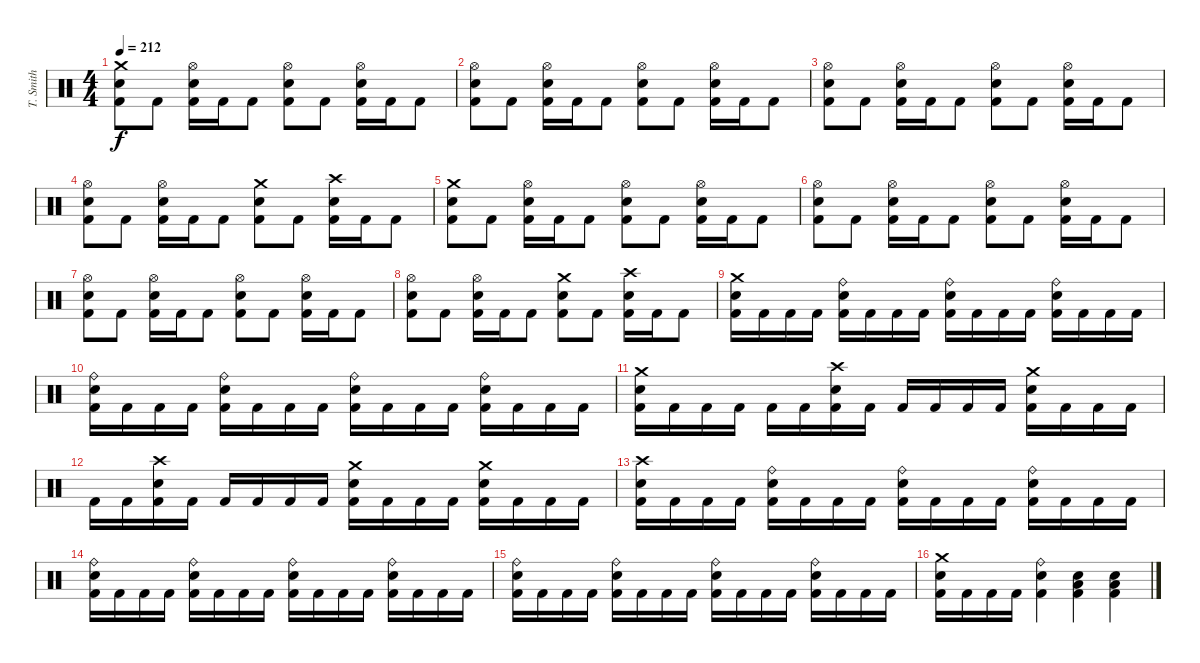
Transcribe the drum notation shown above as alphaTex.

\track ("T. Smith" "T. Smith") {instrument percussion}
\staff {score}
\articulation defaults
\ts (4 4)
\tempo 212
\clef neutral
\ks c
("Crash medium (hit)" "Electric Snare (hit)" "Kick (hit) 2").8{dy f} "Kick (hit) 2".8 ("Hi-Hat (open)" "Electric Snare (hit)" "Kick (hit) 2").16 "Kick (hit) 2".16 "Kick (hit) 2".8 ("Hi-Hat (open)" "Electric Snare (hit)" "Kick (hit) 2").8 "Kick (hit) 2".8 ("Hi-Hat (open)" "Electric Snare (hit)" "Kick (hit) 2").16 "Kick (hit) 2".16 "Kick (hit) 2".8 |
("Hi-Hat (open)" "Electric Snare (hit)" "Kick (hit) 2").8 "Kick (hit) 2".8 ("Hi-Hat (open)" "Electric Snare (hit)" "Kick (hit) 2").16 "Kick (hit) 2".16 "Kick (hit) 2".8 ("Hi-Hat (open)" "Electric Snare (hit)" "Kick (hit) 2").8 "Kick (hit) 2".8 ("Hi-Hat (open)" "Electric Snare (hit)" "Kick (hit) 2").16 "Kick (hit) 2".16 "Kick (hit) 2".8 |
("Hi-Hat (open)" "Electric Snare (hit)" "Kick (hit) 2").8 "Kick (hit) 2".8 ("Hi-Hat (open)" "Electric Snare (hit)" "Kick (hit) 2").16 "Kick (hit) 2".16 "Kick (hit) 2".8 ("Hi-Hat (open)" "Electric Snare (hit)" "Kick (hit) 2").8 "Kick (hit) 2".8 ("Hi-Hat (open)" "Electric Snare (hit)" "Kick (hit) 2").16 "Kick (hit) 2".16 "Kick (hit) 2".8 |
("Hi-Hat (open)" "Electric Snare (hit)" "Kick (hit) 2").8 "Kick (hit) 2".8 ("Hi-Hat (open)" "Electric Snare (hit)" "Kick (hit) 2").16 "Kick (hit) 2".16 "Kick (hit) 2".8 ("Crash medium (hit)" "Electric Snare (hit)" "Kick (hit) 2").8 "Kick (hit) 2".8 ("Crash high (hit)" "Electric Snare (hit)" "Kick (hit) 2").16 "Kick (hit) 2".16 "Kick (hit) 2".8 |
("Crash medium (hit)" "Electric Snare (hit)" "Kick (hit) 2").8 "Kick (hit) 2".8 ("Hi-Hat (open)" "Electric Snare (hit)" "Kick (hit) 2").16 "Kick (hit) 2".16 "Kick (hit) 2".8 ("Hi-Hat (open)" "Electric Snare (hit)" "Kick (hit) 2").8 "Kick (hit) 2".8 ("Hi-Hat (open)" "Electric Snare (hit)" "Kick (hit) 2").16 "Kick (hit) 2".16 "Kick (hit) 2".8 |
("Hi-Hat (open)" "Electric Snare (hit)" "Kick (hit) 2").8 "Kick (hit) 2".8 ("Hi-Hat (open)" "Electric Snare (hit)" "Kick (hit) 2").16 "Kick (hit) 2".16 "Kick (hit) 2".8 ("Hi-Hat (open)" "Electric Snare (hit)" "Kick (hit) 2").8 "Kick (hit) 2".8 ("Hi-Hat (open)" "Electric Snare (hit)" "Kick (hit) 2").16 "Kick (hit) 2".16 "Kick (hit) 2".8 |
("Hi-Hat (open)" "Electric Snare (hit)" "Kick (hit) 2").8 "Kick (hit) 2".8 ("Hi-Hat (open)" "Electric Snare (hit)" "Kick (hit) 2").16 "Kick (hit) 2".16 "Kick (hit) 2".8 ("Hi-Hat (open)" "Electric Snare (hit)" "Kick (hit) 2").8 "Kick (hit) 2".8 ("Hi-Hat (open)" "Electric Snare (hit)" "Kick (hit) 2").16 "Kick (hit) 2".16 "Kick (hit) 2".8 |
("Hi-Hat (open)" "Electric Snare (hit)" "Kick (hit) 2").8 "Kick (hit) 2".8 ("Hi-Hat (open)" "Electric Snare (hit)" "Kick (hit) 2").16 "Kick (hit) 2".16 "Kick (hit) 2".8 ("Crash medium (hit)" "Electric Snare (hit)" "Kick (hit) 2").8 "Kick (hit) 2".8 ("Crash high (hit)" "Electric Snare (hit)" "Kick (hit) 2").16 "Kick (hit) 2".16 "Kick (hit) 2".8 |
("Crash medium (hit)" "Electric Snare (hit)" "Kick (hit) 2").16 "Kick (hit) 2".16 "Kick (hit) 2".16 "Kick (hit) 2".16 ("Ride (bell)" "Electric Snare (hit)" "Kick (hit) 2").16 "Kick (hit) 2".16 "Kick (hit) 2".16 "Kick (hit) 2".16 ("Ride (bell)" "Electric Snare (hit)" "Kick (hit) 2").16 "Kick (hit) 2".16 "Kick (hit) 2".16 "Kick (hit) 2".16 ("Ride (bell)" "Electric Snare (hit)" "Kick (hit) 2").16 "Kick (hit) 2".16 "Kick (hit) 2".16 "Kick (hit) 2".16 |
("Ride (bell)" "Electric Snare (hit)" "Kick (hit) 2").16 "Kick (hit) 2".16 "Kick (hit) 2".16 "Kick (hit) 2".16 ("Ride (bell)" "Electric Snare (hit)" "Kick (hit) 2").16 "Kick (hit) 2".16 "Kick (hit) 2".16 "Kick (hit) 2".16 ("Ride (bell)" "Electric Snare (hit)" "Kick (hit) 2").16 "Kick (hit) 2".16 "Kick (hit) 2".16 "Kick (hit) 2".16 ("Ride (bell)" "Electric Snare (hit)" "Kick (hit) 2").16 "Kick (hit) 2".16 "Kick (hit) 2".16 "Kick (hit) 2".16 |
("Crash medium (hit)" "Electric Snare (hit)" "Kick (hit) 2").16 "Kick (hit) 2".16 "Kick (hit) 2".16 "Kick (hit) 2".16 "Kick (hit) 2".16 "Kick (hit) 2".16 ("Crash high (hit)" "Electric Snare (hit)" "Kick (hit) 2").16 "Kick (hit) 2".16 "Kick (hit) 2".16 "Kick (hit) 2".16 "Kick (hit) 2".16 "Kick (hit) 2".16 ("Crash medium (hit)" "Electric Snare (hit)" "Kick (hit) 2").16 "Kick (hit) 2".16 "Kick (hit) 2".16 "Kick (hit) 2".16 |
"Kick (hit) 2".16 "Kick (hit) 2".16 ("Crash high (hit)" "Electric Snare (hit)" "Kick (hit) 2").16 "Kick (hit) 2".16 "Kick (hit) 2".16 "Kick (hit) 2".16 "Kick (hit) 2".16 "Kick (hit) 2".16 ("Crash medium (hit)" "Electric Snare (hit)" "Kick (hit) 2").16 "Kick (hit) 2".16 "Kick (hit) 2".16 "Kick (hit) 2".16 ("Crash medium (hit)" "Electric Snare (hit)" "Kick (hit) 2").16 "Kick (hit) 2".16 "Kick (hit) 2".16 "Kick (hit) 2".16 |
("Crash high (hit)" "Electric Snare (hit)" "Kick (hit) 2").16 "Kick (hit) 2".16 "Kick (hit) 2".16 "Kick (hit) 2".16 ("Ride (bell)" "Electric Snare (hit)" "Kick (hit) 2").16 "Kick (hit) 2".16 "Kick (hit) 2".16 "Kick (hit) 2".16 ("Ride (bell)" "Electric Snare (hit)" "Kick (hit) 2").16 "Kick (hit) 2".16 "Kick (hit) 2".16 "Kick (hit) 2".16 ("Ride (bell)" "Electric Snare (hit)" "Kick (hit) 2").16 "Kick (hit) 2".16 "Kick (hit) 2".16 "Kick (hit) 2".16 |
("Ride (bell)" "Electric Snare (hit)" "Kick (hit) 2").16 "Kick (hit) 2".16 "Kick (hit) 2".16 "Kick (hit) 2".16 ("Ride (bell)" "Electric Snare (hit)" "Kick (hit) 2").16 "Kick (hit) 2".16 "Kick (hit) 2".16 "Kick (hit) 2".16 ("Ride (bell)" "Electric Snare (hit)" "Kick (hit) 2").16 "Kick (hit) 2".16 "Kick (hit) 2".16 "Kick (hit) 2".16 ("Ride (bell)" "Electric Snare (hit)" "Kick (hit) 2").16 "Kick (hit) 2".16 "Kick (hit) 2".16 "Kick (hit) 2".16 |
("Ride (bell)" "Electric Snare (hit)" "Kick (hit) 2").16 "Kick (hit) 2".16 "Kick (hit) 2".16 "Kick (hit) 2".16 ("Ride (bell)" "Electric Snare (hit)" "Kick (hit) 2").16 "Kick (hit) 2".16 "Kick (hit) 2".16 "Kick (hit) 2".16 ("Ride (bell)" "Electric Snare (hit)" "Kick (hit) 2").16 "Kick (hit) 2".16 "Kick (hit) 2".16 "Kick (hit) 2".16 ("Ride (bell)" "Electric Snare (hit)" "Kick (hit) 2").16 "Kick (hit) 2".16 "Kick (hit) 2".16 "Kick (hit) 2".16 |
("Crash medium (hit)" "Electric Snare (hit)" "Kick (hit) 2").16 "Kick (hit) 2".16 "Kick (hit) 2".16 "Kick (hit) 2".16 ("Ride (bell)" "Electric Snare (hit)" "Kick (hit) 2").4 ("Low Tom (hit)" "Electric Snare (hit)" "Kick (hit) 2").4 ("Low Tom (hit)" "Electric Snare (hit)" "Kick (hit) 2").4
